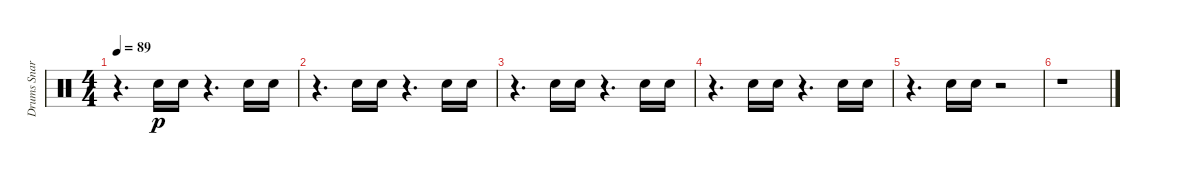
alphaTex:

\track ("Drums Snare" "Drums Snar") {instrument percussion}
\staff {score}
\articulation defaults
\ts (4 4)
\tempo 89
\clef neutral
\ks c
r.4{d dy p} "Snare (hit) 2".16 "Snare (hit) 2".16 r.4{d} "Snare (hit) 2".16 "Snare (hit) 2".16 |
r.4{d} "Snare (hit) 2".16 "Snare (hit) 2".16 r.4{d} "Snare (hit) 2".16 "Snare (hit) 2".16 |
r.4{d} "Snare (hit) 2".16 "Snare (hit) 2".16 r.4{d} "Snare (hit) 2".16 "Snare (hit) 2".16 |
r.4{d} "Snare (hit) 2".16 "Snare (hit) 2".16 r.4{d} "Snare (hit) 2".16 "Snare (hit) 2".16 |
r.4{d} "Snare (hit) 2".16 "Snare (hit) 2".16 r.2 |
r.1
